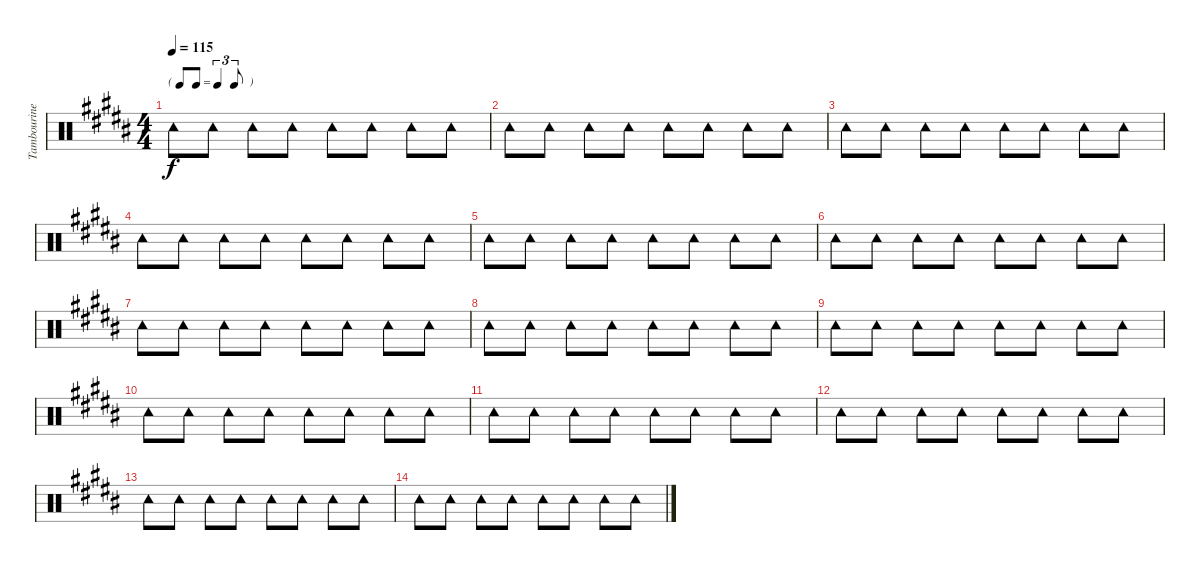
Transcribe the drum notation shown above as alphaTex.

\track ("Tambourine" "Tambourine") {instrument percussion}
\staff {score}
\articulation defaults
\ts (4 4)
\tf triplet8th
\tempo 115
\clef neutral
\ks b "Tambourine (hit)".8{dy f} "Tambourine (hit)".8 "Tambourine (hit)".8 "Tambourine (hit)".8 "Tambourine (hit)".8 "Tambourine (hit)".8 "Tambourine (hit)".8 "Tambourine (hit)".8
|
"Tambourine (hit)".8 "Tambourine (hit)".8 "Tambourine (hit)".8 "Tambourine (hit)".8 "Tambourine (hit)".8 "Tambourine (hit)".8 "Tambourine (hit)".8 "Tambourine (hit)".8 |
"Tambourine (hit)".8 "Tambourine (hit)".8 "Tambourine (hit)".8 "Tambourine (hit)".8 "Tambourine (hit)".8 "Tambourine (hit)".8 "Tambourine (hit)".8 "Tambourine (hit)".8 |
"Tambourine (hit)".8 "Tambourine (hit)".8 "Tambourine (hit)".8 "Tambourine (hit)".8 "Tambourine (hit)".8 "Tambourine (hit)".8 "Tambourine (hit)".8 "Tambourine (hit)".8 |
"Tambourine (hit)".8 "Tambourine (hit)".8 "Tambourine (hit)".8 "Tambourine (hit)".8 "Tambourine (hit)".8 "Tambourine (hit)".8 "Tambourine (hit)".8 "Tambourine (hit)".8 |
"Tambourine (hit)".8 "Tambourine (hit)".8 "Tambourine (hit)".8 "Tambourine (hit)".8 "Tambourine (hit)".8 "Tambourine (hit)".8 "Tambourine (hit)".8 "Tambourine (hit)".8 |
"Tambourine (hit)".8 "Tambourine (hit)".8 "Tambourine (hit)".8 "Tambourine (hit)".8 "Tambourine (hit)".8 "Tambourine (hit)".8 "Tambourine (hit)".8 "Tambourine (hit)".8 |
"Tambourine (hit)".8 "Tambourine (hit)".8 "Tambourine (hit)".8 "Tambourine (hit)".8 "Tambourine (hit)".8 "Tambourine (hit)".8 "Tambourine (hit)".8 "Tambourine (hit)".8 |
"Tambourine (hit)".8 "Tambourine (hit)".8 "Tambourine (hit)".8 "Tambourine (hit)".8 "Tambourine (hit)".8 "Tambourine (hit)".8 "Tambourine (hit)".8 "Tambourine (hit)".8 |
"Tambourine (hit)".8 "Tambourine (hit)".8 "Tambourine (hit)".8 "Tambourine (hit)".8 "Tambourine (hit)".8 "Tambourine (hit)".8 "Tambourine (hit)".8 "Tambourine (hit)".8 |
"Tambourine (hit)".8 "Tambourine (hit)".8 "Tambourine (hit)".8 "Tambourine (hit)".8 "Tambourine (hit)".8 "Tambourine (hit)".8 "Tambourine (hit)".8 "Tambourine (hit)".8 |
"Tambourine (hit)".8 "Tambourine (hit)".8 "Tambourine (hit)".8 "Tambourine (hit)".8 "Tambourine (hit)".8 "Tambourine (hit)".8 "Tambourine (hit)".8 "Tambourine (hit)".8 |
"Tambourine (hit)".8 "Tambourine (hit)".8 "Tambourine (hit)".8 "Tambourine (hit)".8 "Tambourine (hit)".8 "Tambourine (hit)".8 "Tambourine (hit)".8 "Tambourine (hit)".8 |
"Tambourine (hit)".8 "Tambourine (hit)".8 "Tambourine (hit)".8 "Tambourine (hit)".8 "Tambourine (hit)".8 "Tambourine (hit)".8 "Tambourine (hit)".8 "Tambourine (hit)".8
